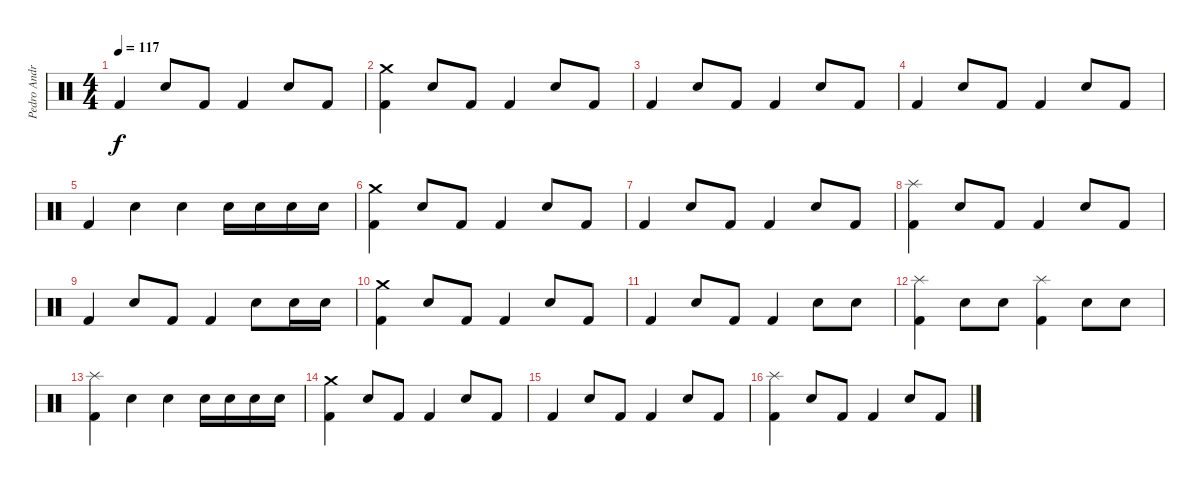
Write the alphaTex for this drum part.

\track ("Pedro Andreu - Batería" "Pedro Andr") {instrument percussion}
\staff {score}
\articulation defaults
\ts (4 4)
\tempo 117
\clef neutral
\ks c "Kick (hit) 2".4{dy f} "Snare (hit) 2".8 "Kick (hit) 2".8 "Kick (hit) 2".4 "Snare (hit) 2".8 "Kick (hit) 2".8
|
("Crash medium (hit)" "Kick (hit) 2").4 "Snare (hit) 2".8 "Kick (hit) 2".8 "Kick (hit) 2".4 "Snare (hit) 2".8 "Kick (hit) 2".8 |
"Kick (hit) 2".4 "Snare (hit) 2".8 "Kick (hit) 2".8 "Kick (hit) 2".4 "Snare (hit) 2".8 "Kick (hit) 2".8 |
"Kick (hit) 2".4 "Snare (hit) 2".8 "Kick (hit) 2".8 "Kick (hit) 2".4 "Snare (hit) 2".8 "Kick (hit) 2".8 |
"Kick (hit) 2".4 "Snare (hit) 2".4 "Snare (hit) 2".4 "Snare (hit) 2".16 "Snare (hit) 2".16 "Snare (hit) 2".16 "Snare (hit) 2".16 |
("Crash medium (hit)" "Kick (hit) 2").4 "Snare (hit) 2".8 "Kick (hit) 2".8 "Kick (hit) 2".4 "Snare (hit) 2".8 "Kick (hit) 2".8 |
"Kick (hit) 2".4 "Snare (hit) 2".8 "Kick (hit) 2".8 "Kick (hit) 2".4 "Snare (hit) 2".8 "Kick (hit) 2".8 |
("Splash (hit)" "Kick (hit) 2").4 "Snare (hit) 2".8 "Kick (hit) 2".8 "Kick (hit) 2".4 "Snare (hit) 2".8 "Kick (hit) 2".8 |
"Kick (hit) 2".4 "Snare (hit) 2".8 "Kick (hit) 2".8 "Kick (hit) 2".4 "Snare (hit) 2".8 "Snare (hit) 2".16 "Snare (hit) 2".16 |
("Crash medium (hit)" "Kick (hit) 2").4 "Snare (hit) 2".8 "Kick (hit) 2".8 "Kick (hit) 2".4 "Snare (hit) 2".8 "Kick (hit) 2".8 |
"Kick (hit) 2".4 "Snare (hit) 2".8 "Kick (hit) 2".8 "Kick (hit) 2".4 "Snare (hit) 2".8 "Snare (hit) 2".8 |
("Splash (hit)" "Kick (hit) 2").4 "Snare (hit) 2".8 "Snare (hit) 2".8 ("Splash (hit)" "Kick (hit) 2").4 "Snare (hit) 2".8 "Snare (hit) 2".8 |
("Splash (hit)" "Kick (hit) 2").4 "Snare (hit) 2".4 "Snare (hit) 2".4 "Snare (hit) 2".16 "Snare (hit) 2".16 "Snare (hit) 2".16 "Snare (hit) 2".16 |
("Crash medium (hit)" "Kick (hit) 2").4 "Snare (hit) 2".8 "Kick (hit) 2".8 "Kick (hit) 2".4 "Snare (hit) 2".8 "Kick (hit) 2".8 |
"Kick (hit) 2".4 "Snare (hit) 2".8 "Kick (hit) 2".8 "Kick (hit) 2".4 "Snare (hit) 2".8 "Kick (hit) 2".8 |
("Splash (hit)" "Kick (hit) 2").4 "Snare (hit) 2".8 "Kick (hit) 2".8 "Kick (hit) 2".4 "Snare (hit) 2".8 "Kick (hit) 2".8
